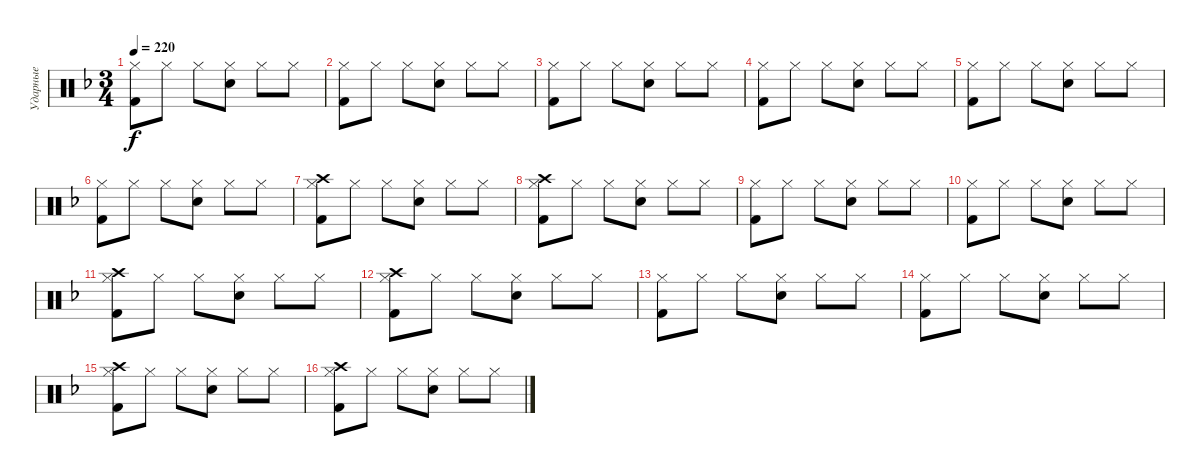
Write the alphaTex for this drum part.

\track ("Ударные" "Ударные") {instrument percussion}
\staff {score}
\articulation defaults
\ts (3 4)
\tempo 220
\clef neutral
\ks f
("Hi-Hat (closed)" "Kick (hit) 2").8{dy f} "Hi-Hat (closed)".8 "Hi-Hat (closed)".8 ("Hi-Hat (closed)" "Electric Snare (hit)").8 "Hi-Hat (closed)".8 "Hi-Hat (closed)".8 |
("Hi-Hat (closed)" "Kick (hit) 2").8 "Hi-Hat (closed)".8 "Hi-Hat (closed)".8 ("Hi-Hat (closed)" "Electric Snare (hit)").8 "Hi-Hat (closed)".8 "Hi-Hat (closed)".8 |
("Hi-Hat (closed)" "Kick (hit) 2").8 "Hi-Hat (closed)".8 "Hi-Hat (closed)".8 ("Hi-Hat (closed)" "Electric Snare (hit)").8 "Hi-Hat (closed)".8 "Hi-Hat (closed)".8 |
("Hi-Hat (closed)" "Kick (hit) 2").8 "Hi-Hat (closed)".8 "Hi-Hat (closed)".8 ("Hi-Hat (closed)" "Electric Snare (hit)").8 "Hi-Hat (closed)".8 "Hi-Hat (closed)".8 |
("Hi-Hat (closed)" "Kick (hit) 2").8 "Hi-Hat (closed)".8 "Hi-Hat (closed)".8 ("Hi-Hat (closed)" "Electric Snare (hit)").8 "Hi-Hat (closed)".8 "Hi-Hat (closed)".8 |
("Hi-Hat (closed)" "Kick (hit) 2").8 "Hi-Hat (closed)".8 "Hi-Hat (closed)".8 ("Hi-Hat (closed)" "Electric Snare (hit)").8 "Hi-Hat (closed)".8 "Hi-Hat (closed)".8 |
("Crash high (hit)" "Hi-Hat (closed)" "Kick (hit) 2").8 "Hi-Hat (closed)".8 "Hi-Hat (closed)".8 ("Hi-Hat (closed)" "Electric Snare (hit)").8 "Hi-Hat (closed)".8 "Hi-Hat (closed)".8 |
("Crash high (hit)" "Hi-Hat (closed)" "Kick (hit) 2").8 "Hi-Hat (closed)".8 "Hi-Hat (closed)".8 ("Hi-Hat (closed)" "Electric Snare (hit)").8 "Hi-Hat (closed)".8 "Hi-Hat (closed)".8 |
("Hi-Hat (closed)" "Kick (hit) 2").8 "Hi-Hat (closed)".8 "Hi-Hat (closed)".8 ("Hi-Hat (closed)" "Electric Snare (hit)").8 "Hi-Hat (closed)".8 "Hi-Hat (closed)".8 |
("Hi-Hat (closed)" "Kick (hit) 2").8 "Hi-Hat (closed)".8 "Hi-Hat (closed)".8 ("Hi-Hat (closed)" "Electric Snare (hit)").8 "Hi-Hat (closed)".8 "Hi-Hat (closed)".8 |
("Crash high (hit)" "Hi-Hat (closed)" "Kick (hit) 2").8 "Hi-Hat (closed)".8 "Hi-Hat (closed)".8 ("Hi-Hat (closed)" "Electric Snare (hit)").8 "Hi-Hat (closed)".8 "Hi-Hat (closed)".8 |
("Crash high (hit)" "Hi-Hat (closed)" "Kick (hit) 2").8 "Hi-Hat (closed)".8 "Hi-Hat (closed)".8 ("Hi-Hat (closed)" "Electric Snare (hit)").8 "Hi-Hat (closed)".8 "Hi-Hat (closed)".8 |
("Hi-Hat (closed)" "Kick (hit) 2").8 "Hi-Hat (closed)".8 "Hi-Hat (closed)".8 ("Hi-Hat (closed)" "Electric Snare (hit)").8 "Hi-Hat (closed)".8 "Hi-Hat (closed)".8 |
("Hi-Hat (closed)" "Kick (hit) 2").8 "Hi-Hat (closed)".8 "Hi-Hat (closed)".8 ("Hi-Hat (closed)" "Electric Snare (hit)").8 "Hi-Hat (closed)".8 "Hi-Hat (closed)".8 |
("Crash high (hit)" "Hi-Hat (closed)" "Kick (hit) 2").8 "Hi-Hat (closed)".8 "Hi-Hat (closed)".8 ("Hi-Hat (closed)" "Electric Snare (hit)").8 "Hi-Hat (closed)".8 "Hi-Hat (closed)".8 |
("Crash high (hit)" "Hi-Hat (closed)" "Kick (hit) 2").8 "Hi-Hat (closed)".8 "Hi-Hat (closed)".8 ("Hi-Hat (closed)" "Electric Snare (hit)").8 "Hi-Hat (closed)".8 "Hi-Hat (closed)".8
